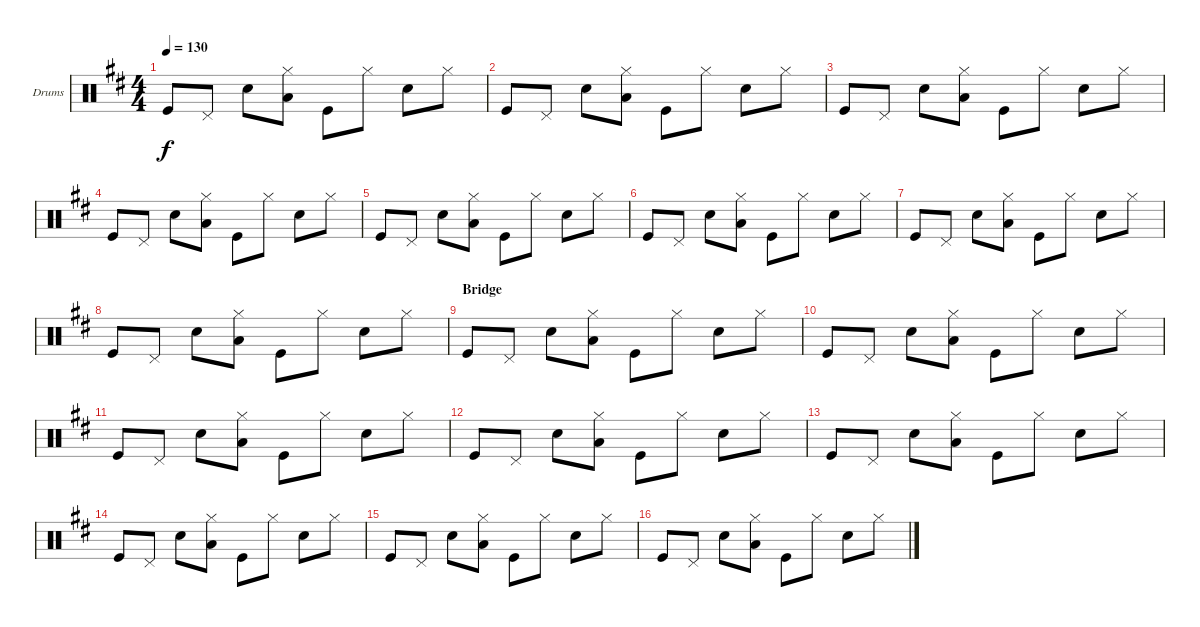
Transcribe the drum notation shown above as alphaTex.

\defaultSystemsLayout 4
\bracketExtendMode groupsimilarinstruments
\firstSystemTrackNameOrientation horizontal
\otherSystemsTrackNameOrientation horizontal
\track ("Drumkit" "Drums") {instrument percussion}
\staff {score}
\articulation defaults
\ts (4 4)
\tempo 130
\clef neutral
\scale
0.333333
\ks d "Kick (hit)".8{dy f} "Pedal Hi-Hat (hit)".8 "Snare (hit) 2".8
("Hi-Hat (closed)" "Low Tom (hit)").8 "Kick (hit)".8 "Hi-Hat (closed)".8 "Snare (hit) 2".8 "Hi-Hat (closed)".8 |
\scale
0.333333 "Kick (hit)".8 "Pedal Hi-Hat (hit)".8 "Snare (hit) 2".8 ("Hi-Hat (closed)" "Low Tom (hit)").8 "Kick (hit)".8 "Hi-Hat (closed)".8 "Snare (hit) 2".8 "Hi-Hat (closed)".8 |
\scale
0.333333 "Kick (hit)".8 "Pedal Hi-Hat (hit)".8 "Snare (hit) 2".8 ("Hi-Hat (closed)" "Low Tom (hit)").8 "Kick (hit)".8 "Hi-Hat (closed)".8 "Snare (hit) 2".8 "Hi-Hat (closed)".8 |
\scale
0.333333 "Kick (hit)".8 "Pedal Hi-Hat (hit)".8 "Snare (hit) 2".8 ("Hi-Hat (closed)" "Low Tom (hit)").8 "Kick (hit)".8 "Hi-Hat (closed)".8 "Snare (hit) 2".8 "Hi-Hat (closed)".8 |
\scale
0.333333 "Kick (hit)".8 "Pedal Hi-Hat (hit)".8 "Snare (hit) 2".8 ("Hi-Hat (closed)" "Low Tom (hit)").8 "Kick (hit)".8 "Hi-Hat (closed)".8 "Snare (hit) 2".8 "Hi-Hat (closed)".8 |
\scale
0.333333 "Kick (hit)".8 "Pedal Hi-Hat (hit)".8 "Snare (hit) 2".8 ("Hi-Hat (closed)" "Low Tom (hit)").8 "Kick (hit)".8 "Hi-Hat (closed)".8 "Snare (hit) 2".8 "Hi-Hat (closed)".8 |
\scale
0.333333 "Kick (hit)".8 "Pedal Hi-Hat (hit)".8 "Snare (hit) 2".8 ("Hi-Hat (closed)" "Low Tom (hit)").8 "Kick (hit)".8 "Hi-Hat (closed)".8 "Snare (hit) 2".8 "Hi-Hat (closed)".8 |
\scale
0.333333 "Kick (hit)".8 "Pedal Hi-Hat (hit)".8 "Snare (hit) 2".8 ("Hi-Hat (closed)" "Low Tom (hit)").8 "Kick (hit)".8 "Hi-Hat (closed)".8 "Snare (hit) 2".8 "Hi-Hat (closed)".8 |
\section ("" "Bridge")
\scale
0.333333 "Kick (hit)".8 "Pedal Hi-Hat (hit)".8 "Snare (hit) 2".8 ("Hi-Hat (closed)" "Low Tom (hit)").8 "Kick (hit)".8 "Hi-Hat (closed)".8 "Snare (hit) 2".8 "Hi-Hat (closed)".8 |
\scale
0.333333 "Kick (hit)".8 "Pedal Hi-Hat (hit)".8 "Snare (hit) 2".8 ("Hi-Hat (closed)" "Low Tom (hit)").8 "Kick (hit)".8 "Hi-Hat (closed)".8 "Snare (hit) 2".8 "Hi-Hat (closed)".8 |
\scale
0.333333 "Kick (hit)".8 "Pedal Hi-Hat (hit)".8 "Snare (hit) 2".8 ("Hi-Hat (closed)" "Low Tom (hit)").8 "Kick (hit)".8 "Hi-Hat (closed)".8 "Snare (hit) 2".8 "Hi-Hat (closed)".8 |
\scale
0.333333 "Kick (hit)".8 "Pedal Hi-Hat (hit)".8 "Snare (hit) 2".8 ("Hi-Hat (closed)" "Low Tom (hit)").8 "Kick (hit)".8 "Hi-Hat (closed)".8 "Snare (hit) 2".8 "Hi-Hat (closed)".8 |
\scale
0.333333 "Kick (hit)".8 "Pedal Hi-Hat (hit)".8 "Snare (hit) 2".8 ("Hi-Hat (closed)" "Low Tom (hit)").8 "Kick (hit)".8 "Hi-Hat (closed)".8 "Snare (hit) 2".8 "Hi-Hat (closed)".8 |
\scale
0.333333 "Kick (hit)".8 "Pedal Hi-Hat (hit)".8 "Snare (hit) 2".8 ("Hi-Hat (closed)" "Low Tom (hit)").8 "Kick (hit)".8 "Hi-Hat (closed)".8 "Snare (hit) 2".8 "Hi-Hat (closed)".8 |
\scale
0.333333 "Kick (hit)".8 "Pedal Hi-Hat (hit)".8 "Snare (hit) 2".8 ("Hi-Hat (closed)" "Low Tom (hit)").8 "Kick (hit)".8 "Hi-Hat (closed)".8 "Snare (hit) 2".8 "Hi-Hat (closed)".8 |
\scale
0.333333 "Kick (hit)".8 "Pedal Hi-Hat (hit)".8 "Snare (hit) 2".8 ("Hi-Hat (closed)" "Low Tom (hit)").8 "Kick (hit)".8 "Hi-Hat (closed)".8 "Snare (hit) 2".8 "Hi-Hat (closed)".8
